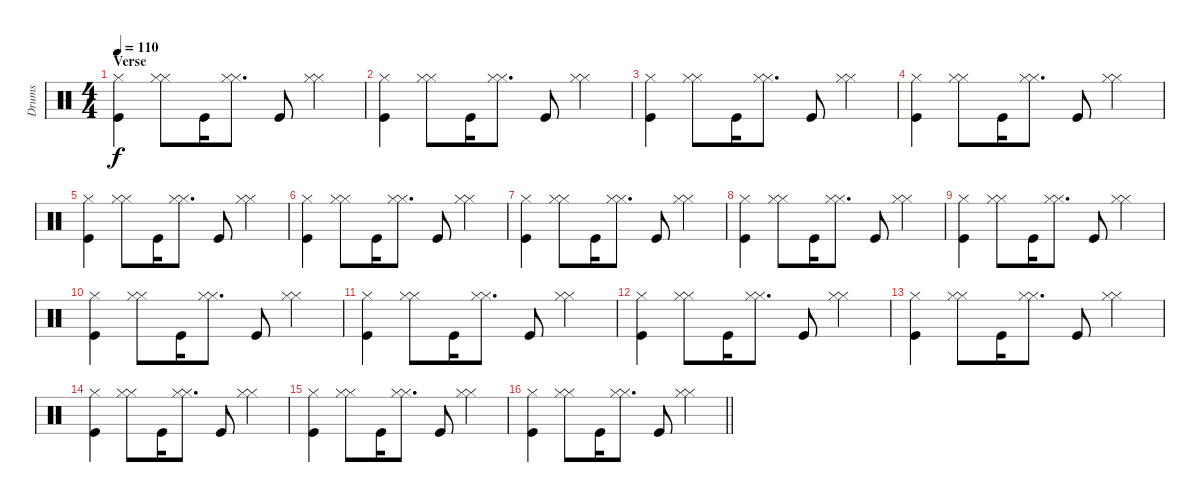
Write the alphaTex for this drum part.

\track ("Drums" "Drums") {instrument percussion}
\staff {score}
\articulation defaults
\ts (4 4)
\section ("" "Verse")
\tempo 110
\clef neutral
\ks c
("Hi-Hat (closed)" "Kick (hit)").4{dy f} ("Hi-Hat (closed)" "Hi-Hat (closed)").8 "Kick (hit)".16 ("Hi-Hat (closed)" "Hi-Hat (closed)").8{d} "Kick (hit)".8 ("Hi-Hat (closed)" "Hi-Hat (closed)").4 |
("Hi-Hat (closed)" "Kick (hit)").4 ("Hi-Hat (closed)" "Hi-Hat (closed)").8 "Kick (hit)".16 ("Hi-Hat (closed)" "Hi-Hat (closed)").8{d} "Kick (hit)".8 ("Hi-Hat (closed)" "Hi-Hat (closed)").4 |
("Hi-Hat (closed)" "Kick (hit)").4 ("Hi-Hat (closed)" "Hi-Hat (closed)").8 "Kick (hit)".16 ("Hi-Hat (closed)" "Hi-Hat (closed)").8{d} "Kick (hit)".8 ("Hi-Hat (closed)" "Hi-Hat (closed)").4 |
("Hi-Hat (closed)" "Kick (hit)").4 ("Hi-Hat (closed)" "Hi-Hat (closed)").8 "Kick (hit)".16 ("Hi-Hat (closed)" "Hi-Hat (closed)").8{d} "Kick (hit)".8 ("Hi-Hat (closed)" "Hi-Hat (closed)").4 |
("Hi-Hat (closed)" "Kick (hit)").4 ("Hi-Hat (closed)" "Hi-Hat (closed)").8 "Kick (hit)".16 ("Hi-Hat (closed)" "Hi-Hat (closed)").8{d} "Kick (hit)".8 ("Hi-Hat (closed)" "Hi-Hat (closed)").4 |
("Hi-Hat (closed)" "Kick (hit)").4 ("Hi-Hat (closed)" "Hi-Hat (closed)").8 "Kick (hit)".16 ("Hi-Hat (closed)" "Hi-Hat (closed)").8{d} "Kick (hit)".8 ("Hi-Hat (closed)" "Hi-Hat (closed)").4 |
("Hi-Hat (closed)" "Kick (hit)").4 ("Hi-Hat (closed)" "Hi-Hat (closed)").8 "Kick (hit)".16 ("Hi-Hat (closed)" "Hi-Hat (closed)").8{d} "Kick (hit)".8 ("Hi-Hat (closed)" "Hi-Hat (closed)").4 |
("Hi-Hat (closed)" "Kick (hit)").4 ("Hi-Hat (closed)" "Hi-Hat (closed)").8 "Kick (hit)".16 ("Hi-Hat (closed)" "Hi-Hat (closed)").8{d} "Kick (hit)".8 ("Hi-Hat (closed)" "Hi-Hat (closed)").4 |
("Hi-Hat (closed)" "Kick (hit)").4 ("Hi-Hat (closed)" "Hi-Hat (closed)").8 "Kick (hit)".16 ("Hi-Hat (closed)" "Hi-Hat (closed)").8{d} "Kick (hit)".8 ("Hi-Hat (closed)" "Hi-Hat (closed)").4 |
("Hi-Hat (closed)" "Kick (hit)").4 ("Hi-Hat (closed)" "Hi-Hat (closed)").8 "Kick (hit)".16 ("Hi-Hat (closed)" "Hi-Hat (closed)").8{d} "Kick (hit)".8 ("Hi-Hat (closed)" "Hi-Hat (closed)").4 |
("Hi-Hat (closed)" "Kick (hit)").4 ("Hi-Hat (closed)" "Hi-Hat (closed)").8 "Kick (hit)".16 ("Hi-Hat (closed)" "Hi-Hat (closed)").8{d} "Kick (hit)".8 ("Hi-Hat (closed)" "Hi-Hat (closed)").4 |
("Hi-Hat (closed)" "Kick (hit)").4 ("Hi-Hat (closed)" "Hi-Hat (closed)").8 "Kick (hit)".16 ("Hi-Hat (closed)" "Hi-Hat (closed)").8{d} "Kick (hit)".8 ("Hi-Hat (closed)" "Hi-Hat (closed)").4 |
("Hi-Hat (closed)" "Kick (hit)").4 ("Hi-Hat (closed)" "Hi-Hat (closed)").8 "Kick (hit)".16 ("Hi-Hat (closed)" "Hi-Hat (closed)").8{d} "Kick (hit)".8 ("Hi-Hat (closed)" "Hi-Hat (closed)").4 |
("Hi-Hat (closed)" "Kick (hit)").4 ("Hi-Hat (closed)" "Hi-Hat (closed)").8 "Kick (hit)".16 ("Hi-Hat (closed)" "Hi-Hat (closed)").8{d} "Kick (hit)".8 ("Hi-Hat (closed)" "Hi-Hat (closed)").4 |
("Hi-Hat (closed)" "Kick (hit)").4 ("Hi-Hat (closed)" "Hi-Hat (closed)").8 "Kick (hit)".16 ("Hi-Hat (closed)" "Hi-Hat (closed)").8{d} "Kick (hit)".8 ("Hi-Hat (closed)" "Hi-Hat (closed)").4 |
\barLineRight lightlight
("Hi-Hat (closed)" "Kick (hit)").4 ("Hi-Hat (closed)" "Hi-Hat (closed)").8 "Kick (hit)".16 ("Hi-Hat (closed)" "Hi-Hat (closed)").8{d} "Kick (hit)".8 ("Hi-Hat (closed)" "Hi-Hat (closed)").4
